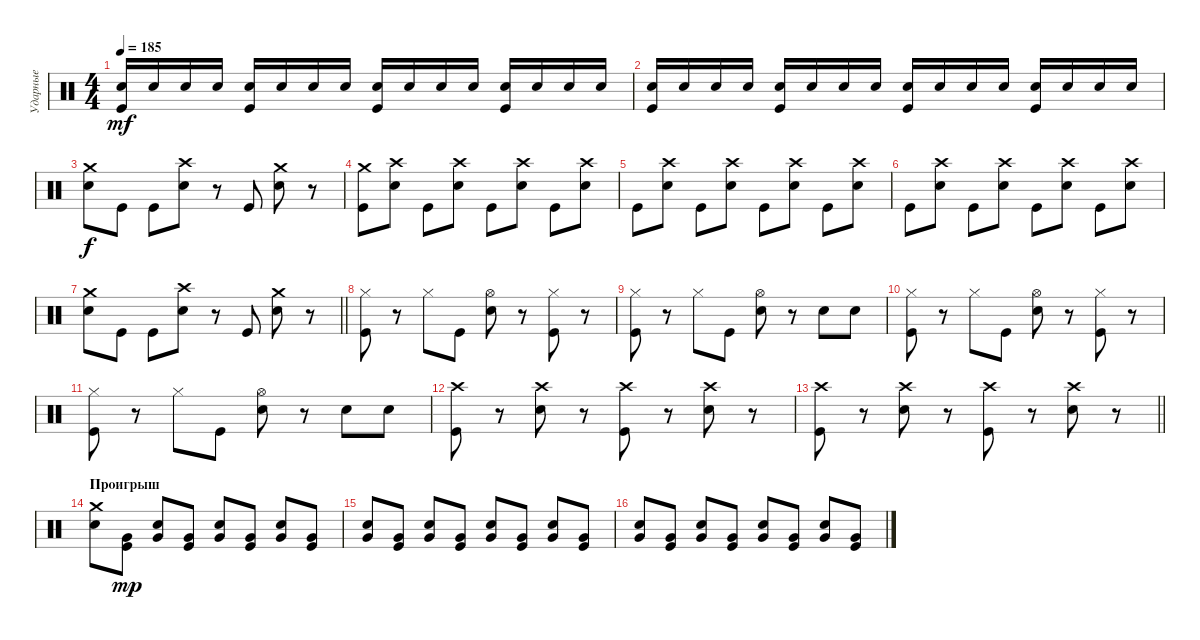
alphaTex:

\track ("Ударные" "Ударные") {instrument percussion}
\staff {score}
\articulation defaults
\ts (4 4)
\tempo 185
\clef neutral
\ks c
("Electric Snare (hit)" "Kick (hit)").16{dy mf} "Electric Snare (hit)".16 "Electric Snare (hit)".16 "Electric Snare (hit)".16 ("Electric Snare (hit)" "Kick (hit)").16 "Electric Snare (hit)".16 "Electric Snare (hit)".16 "Electric Snare (hit)".16 ("Electric Snare (hit)" "Kick (hit)").16 "Electric Snare (hit)".16 "Electric Snare (hit)".16 "Electric Snare (hit)".16 ("Electric Snare (hit)" "Kick (hit)").16 "Electric Snare (hit)".16 "Electric Snare (hit)".16 "Electric Snare (hit)".16 |
("Electric Snare (hit)" "Kick (hit)").16 "Electric Snare (hit)".16 "Electric Snare (hit)".16 "Electric Snare (hit)".16 ("Electric Snare (hit)" "Kick (hit)").16 "Electric Snare (hit)".16 "Electric Snare (hit)".16 "Electric Snare (hit)".16 ("Electric Snare (hit)" "Kick (hit)").16 "Electric Snare (hit)".16 "Electric Snare (hit)".16 "Electric Snare (hit)".16 ("Electric Snare (hit)" "Kick (hit)").16 "Electric Snare (hit)".16 "Electric Snare (hit)".16 "Electric Snare (hit)".16 |
("Crash medium (hit)" "Electric Snare (hit)").8{dy f} "Kick (hit)".8 "Kick (hit)".8 ("Crash high (hit)" "Electric Snare (hit)").8 r.8 "Kick (hit)".8 ("Crash medium (hit)" "Electric Snare (hit)").8 r.8 |
("Crash medium (hit)" "Kick (hit)").8 ("Crash high (hit)" "Electric Snare (hit)").8 "Kick (hit)".8 ("Crash high (hit)" "Electric Snare (hit)").8 "Kick (hit)".8 ("Crash high (hit)" "Electric Snare (hit)").8 "Kick (hit)".8 ("Crash high (hit)" "Electric Snare (hit)").8 |
"Kick (hit)".8 ("Crash high (hit)" "Electric Snare (hit)").8 "Kick (hit)".8 ("Crash high (hit)" "Electric Snare (hit)").8 "Kick (hit)".8 ("Crash high (hit)" "Electric Snare (hit)").8 "Kick (hit)".8 ("Crash high (hit)" "Electric Snare (hit)").8 |
"Kick (hit)".8 ("Crash high (hit)" "Electric Snare (hit)").8 "Kick (hit)".8 ("Crash high (hit)" "Electric Snare (hit)").8 "Kick (hit)".8 ("Crash high (hit)" "Electric Snare (hit)").8 "Kick (hit)".8 ("Crash high (hit)" "Electric Snare (hit)").8 |
\barLineRight lightlight
("Crash medium (hit)" "Electric Snare (hit)").8 "Kick (hit)".8 "Kick (hit)".8 ("Crash high (hit)" "Electric Snare (hit)").8 r.8 "Kick (hit)".8 ("Crash medium (hit)" "Electric Snare (hit)").8 r.8 |
\section ("" " ")
("Hi-Hat (closed)" "Kick (hit)").8 r.8 "Hi-Hat (closed)".8 "Kick (hit)".8 ("Hi-Hat (open)" "Electric Snare (hit)").8 r.8 ("Hi-Hat (closed)" "Kick (hit)").8 r.8 |
("Hi-Hat (closed)" "Kick (hit)").8 r.8 "Hi-Hat (closed)".8 "Kick (hit)".8 ("Hi-Hat (open)" "Electric Snare (hit)").8 r.8 "Electric Snare (hit)".8 "Electric Snare (hit)".8 |
("Hi-Hat (closed)" "Kick (hit)").8 r.8 "Hi-Hat (closed)".8 "Kick (hit)".8 ("Hi-Hat (open)" "Electric Snare (hit)").8 r.8 ("Hi-Hat (closed)" "Kick (hit)").8 r.8 |
("Hi-Hat (closed)" "Kick (hit)").8 r.8 "Hi-Hat (closed)".8 "Kick (hit)".8 ("Hi-Hat (open)" "Electric Snare (hit)").8 r.8 "Electric Snare (hit)".8 "Electric Snare (hit)".8 |
("Crash high (hit)" "Kick (hit)").8 r.8 ("Crash high (hit)" "Electric Snare (hit)").8 r.8 ("Crash high (hit)" "Kick (hit)").8 r.8 ("Crash high (hit)" "Electric Snare (hit)").8 r.8 |
\barLineRight lightlight
("Crash high (hit)" "Kick (hit)").8 r.8 ("Crash high (hit)" "Electric Snare (hit)").8 r.8 ("Crash high (hit)" "Kick (hit)").8 r.8 ("Crash high (hit)" "Electric Snare (hit)").8 r.8 |
\section ("" "Проигрыш")
("Crash medium (hit)" "Electric Snare (hit)").8 ("Very Low Tom (hit)" "Kick (hit)").8{dy mp} ("Very Low Tom (hit)" "Electric Snare (hit)").8 ("Very Low Tom (hit)" "Kick (hit)").8 ("Very Low Tom (hit)" "Electric Snare (hit)").8 ("Very Low Tom (hit)" "Kick (hit)").8 ("Very Low Tom (hit)" "Electric Snare (hit)").8 ("Very Low Tom (hit)" "Kick (hit)").8 |
("Very Low Tom (hit)" "Electric Snare (hit)").8 ("Very Low Tom (hit)" "Kick (hit)").8 ("Very Low Tom (hit)" "Electric Snare (hit)").8 ("Very Low Tom (hit)" "Kick (hit)").8 ("Very Low Tom (hit)" "Electric Snare (hit)").8 ("Very Low Tom (hit)" "Kick (hit)").8 ("Very Low Tom (hit)" "Electric Snare (hit)").8 ("Very Low Tom (hit)" "Kick (hit)").8 |
("Very Low Tom (hit)" "Electric Snare (hit)").8 ("Very Low Tom (hit)" "Kick (hit)").8 ("Very Low Tom (hit)" "Electric Snare (hit)").8 ("Very Low Tom (hit)" "Kick (hit)").8 ("Very Low Tom (hit)" "Electric Snare (hit)").8 ("Very Low Tom (hit)" "Kick (hit)").8 ("Very Low Tom (hit)" "Electric Snare (hit)").8 ("Very Low Tom (hit)" "Kick (hit)").8
